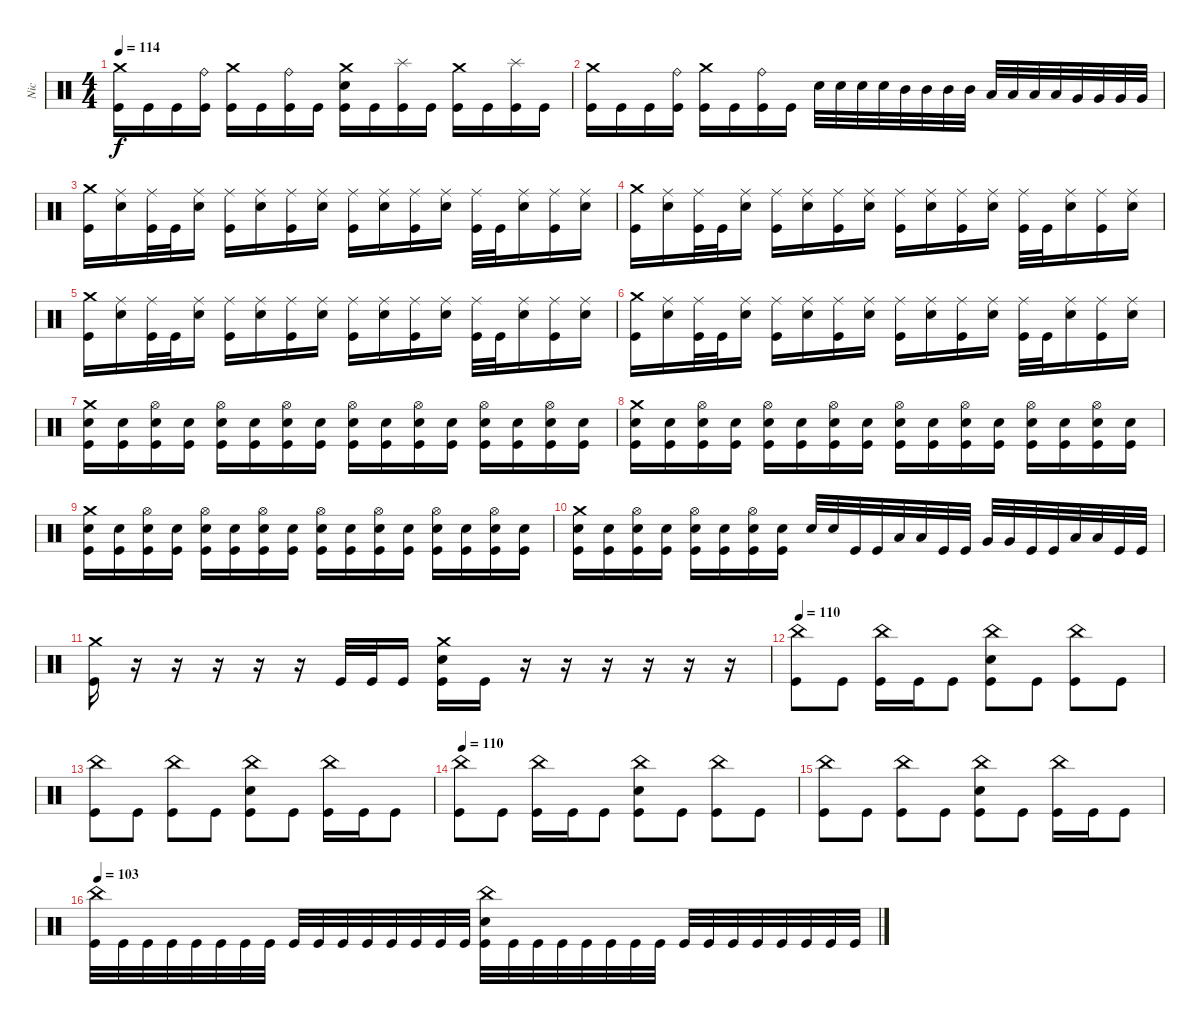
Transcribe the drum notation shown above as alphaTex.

\track ("Nic" "Nic") {instrument percussion}
\staff {score}
\articulation defaults
\ts (4 4)
\tempo 114
\clef neutral
\ks c
("Crash medium (hit)" "Kick (hit)").16{dy f} "Kick (hit)".16 "Kick (hit)".16 ("Ride (bell)" "Kick (hit)").16 ("Crash medium (hit)" "Kick (hit)").16 "Kick (hit)".16 ("Ride (bell)" "Kick (hit)").16 "Kick (hit)".16 ("Crash medium (hit)" "Snare (hit) 2" "Kick (hit)").16 "Kick (hit)".16 ("Splash (hit)" "Kick (hit)").16 "Kick (hit)".16 ("Crash medium (hit)" "Kick (hit)").16 "Kick (hit)".16 ("Splash (hit)" "Kick (hit)").16 "Kick (hit)".16 |
("Crash medium (hit)" "Kick (hit)").16 "Kick (hit)".16 "Kick (hit)".16 ("Ride (bell)" "Kick (hit)").16 ("Crash medium (hit)" "Kick (hit)").16 "Kick (hit)".16 ("Ride (bell)" "Kick (hit)").16 "Kick (hit)".16 "Snare (hit) 2".32 "Snare (hit) 2".32 "Snare (hit) 2".32 "Snare (hit) 2".32 "Mid Tom (hit)".32 "Mid Tom (hit)".32 "Mid Tom (hit)".32 "Mid Tom (hit)".32 "Low Tom (hit)".32 "Low Tom (hit)".32 "Low Tom (hit)".32 "Low Tom (hit)".32 "Very Low Tom (hit)".32 "Very Low Tom (hit)".32 "Very Low Tom (hit)".32 "Very Low Tom (hit)".32 |
("Crash medium (hit)" "Kick (hit)").16 ("Ride (middle)" "Snare (hit) 2").16 ("Ride (middle)" "Kick (hit)").32 "Kick (hit)".32 ("Ride (middle)" "Snare (hit) 2").16 ("Ride (middle)" "Kick (hit)").16 ("Ride (middle)" "Snare (hit) 2").16 ("Ride (middle)" "Kick (hit)").16 ("Ride (middle)" "Snare (hit) 2").16 ("Ride (middle)" "Kick (hit)").16 ("Ride (middle)" "Snare (hit) 2").16 ("Ride (middle)" "Kick (hit)").16 ("Ride (middle)" "Snare (hit) 2").16 ("Ride (middle)" "Kick (hit)").32 "Kick (hit)".32 ("Ride (middle)" "Snare (hit) 2").16 ("Ride (middle)" "Kick (hit)").16 ("Ride (middle)" "Snare (hit) 2").16 |
("Crash medium (hit)" "Kick (hit)").16 ("Ride (middle)" "Snare (hit) 2").16 ("Ride (middle)" "Kick (hit)").32 "Kick (hit)".32 ("Ride (middle)" "Snare (hit) 2").16 ("Ride (middle)" "Kick (hit)").16 ("Ride (middle)" "Snare (hit) 2").16 ("Ride (middle)" "Kick (hit)").16 ("Ride (middle)" "Snare (hit) 2").16 ("Ride (middle)" "Kick (hit)").16 ("Ride (middle)" "Snare (hit) 2").16 ("Ride (middle)" "Kick (hit)").16 ("Ride (middle)" "Snare (hit) 2").16 ("Ride (middle)" "Kick (hit)").32 "Kick (hit)".32 ("Ride (middle)" "Snare (hit) 2").16 ("Ride (middle)" "Kick (hit)").16 ("Ride (middle)" "Snare (hit) 2").16 |
("Crash medium (hit)" "Kick (hit)").16 ("Ride (middle)" "Snare (hit) 2").16 ("Ride (middle)" "Kick (hit)").32 "Kick (hit)".32 ("Ride (middle)" "Snare (hit) 2").16 ("Ride (middle)" "Kick (hit)").16 ("Ride (middle)" "Snare (hit) 2").16 ("Ride (middle)" "Kick (hit)").16 ("Ride (middle)" "Snare (hit) 2").16 ("Ride (middle)" "Kick (hit)").16 ("Ride (middle)" "Snare (hit) 2").16 ("Ride (middle)" "Kick (hit)").16 ("Ride (middle)" "Snare (hit) 2").16 ("Ride (middle)" "Kick (hit)").32 "Kick (hit)".32 ("Ride (middle)" "Snare (hit) 2").16 ("Ride (middle)" "Kick (hit)").16 ("Ride (middle)" "Snare (hit) 2").16 |
("Crash medium (hit)" "Kick (hit)").16 ("Ride (middle)" "Snare (hit) 2").16 ("Ride (middle)" "Kick (hit)").32 "Kick (hit)".32 ("Ride (middle)" "Snare (hit) 2").16 ("Ride (middle)" "Kick (hit)").16 ("Ride (middle)" "Snare (hit) 2").16 ("Ride (middle)" "Kick (hit)").16 ("Ride (middle)" "Snare (hit) 2").16 ("Ride (middle)" "Kick (hit)").16 ("Ride (middle)" "Snare (hit) 2").16 ("Ride (middle)" "Kick (hit)").16 ("Ride (middle)" "Snare (hit) 2").16 ("Ride (middle)" "Kick (hit)").32 "Kick (hit)".32 ("Ride (middle)" "Snare (hit) 2").16 ("Ride (middle)" "Kick (hit)").16 ("Ride (middle)" "Snare (hit) 2").16 |
("Crash medium (hit)" "Snare (hit) 2" "Kick (hit)").16 ("Snare (hit) 2" "Kick (hit)").16 ("Hi-Hat (open)" "Snare (hit) 2" "Kick (hit)").16 ("Snare (hit) 2" "Kick (hit)").16 ("Hi-Hat (open)" "Snare (hit) 2" "Kick (hit)").16 ("Snare (hit) 2" "Kick (hit)").16 ("Hi-Hat (open)" "Snare (hit) 2" "Kick (hit)").16 ("Snare (hit) 2" "Kick (hit)").16 ("Hi-Hat (open)" "Snare (hit) 2" "Kick (hit)").16 ("Snare (hit) 2" "Kick (hit)").16 ("Hi-Hat (open)" "Snare (hit) 2" "Kick (hit)").16 ("Snare (hit) 2" "Kick (hit)").16 ("Hi-Hat (open)" "Snare (hit) 2" "Kick (hit)").16 ("Snare (hit) 2" "Kick (hit)").16 ("Hi-Hat (open)" "Snare (hit) 2" "Kick (hit)").16 ("Snare (hit) 2" "Kick (hit)").16 |
("Crash medium (hit)" "Snare (hit) 2" "Kick (hit)").16 ("Snare (hit) 2" "Kick (hit)").16 ("Hi-Hat (open)" "Snare (hit) 2" "Kick (hit)").16 ("Snare (hit) 2" "Kick (hit)").16 ("Hi-Hat (open)" "Snare (hit) 2" "Kick (hit)").16 ("Snare (hit) 2" "Kick (hit)").16 ("Hi-Hat (open)" "Snare (hit) 2" "Kick (hit)").16 ("Snare (hit) 2" "Kick (hit)").16 ("Hi-Hat (open)" "Snare (hit) 2" "Kick (hit)").16 ("Snare (hit) 2" "Kick (hit)").16 ("Hi-Hat (open)" "Snare (hit) 2" "Kick (hit)").16 ("Snare (hit) 2" "Kick (hit)").16 ("Hi-Hat (open)" "Snare (hit) 2" "Kick (hit)").16 ("Snare (hit) 2" "Kick (hit)").16 ("Hi-Hat (open)" "Snare (hit) 2" "Kick (hit)").16 ("Snare (hit) 2" "Kick (hit)").16 |
("Crash medium (hit)" "Snare (hit) 2" "Kick (hit)").16 ("Snare (hit) 2" "Kick (hit)").16 ("Hi-Hat (open)" "Snare (hit) 2" "Kick (hit)").16 ("Snare (hit) 2" "Kick (hit)").16 ("Hi-Hat (open)" "Snare (hit) 2" "Kick (hit)").16 ("Snare (hit) 2" "Kick (hit)").16 ("Hi-Hat (open)" "Snare (hit) 2" "Kick (hit)").16 ("Snare (hit) 2" "Kick (hit)").16 ("Hi-Hat (open)" "Snare (hit) 2" "Kick (hit)").16 ("Snare (hit) 2" "Kick (hit)").16 ("Hi-Hat (open)" "Snare (hit) 2" "Kick (hit)").16 ("Snare (hit) 2" "Kick (hit)").16 ("Hi-Hat (open)" "Snare (hit) 2" "Kick (hit)").16 ("Snare (hit) 2" "Kick (hit)").16 ("Hi-Hat (open)" "Snare (hit) 2" "Kick (hit)").16 ("Snare (hit) 2" "Kick (hit)").16 |
("Crash medium (hit)" "Snare (hit) 2" "Kick (hit)").16 ("Snare (hit) 2" "Kick (hit)").16 ("Hi-Hat (open)" "Snare (hit) 2" "Kick (hit)").16 ("Snare (hit) 2" "Kick (hit)").16 ("Hi-Hat (open)" "Snare (hit) 2" "Kick (hit)").16 ("Snare (hit) 2" "Kick (hit)").16 ("Hi-Hat (open)" "Snare (hit) 2" "Kick (hit)").16 ("Snare (hit) 2" "Kick (hit)").16 "Snare (hit) 2".32 "Snare (hit) 2".32 "Kick (hit)".32 "Kick (hit)".32 "Low Tom (hit)".32 "Low Tom (hit)".32 "Kick (hit)".32 "Kick (hit)".32 "Very Low Tom (hit)".32 "Very Low Tom (hit)".32 "Kick (hit)".32 "Kick (hit)".32 "Low Floor Tom (hit)".32 "Low Floor Tom (hit)".32 "Kick (hit)".32 "Kick (hit)".32 |
("Crash medium (hit)" "Kick (hit)").16 r.16 r.16 r.16 r.16 r.16 "Kick (hit)".32 "Kick (hit)".32 "Kick (hit)".16 ("Crash medium (hit)" "Snare (hit) 2" "Kick (hit)").16 "Kick (hit)".16 r.16 r.16 r.16 r.16 r.16 r.16 |
\tempo 110
("China (hit)" "Kick (hit)").8 "Kick (hit)".8 ("China (hit)" "Kick (hit)").16 "Kick (hit)".16 "Kick (hit)".8 ("China (hit)" "Snare (hit) 2" "Kick (hit)").8 "Kick (hit)".8 ("China (hit)" "Kick (hit)").8 "Kick (hit)".8 |
("China (hit)" "Kick (hit)").8 "Kick (hit)".8 ("China (hit)" "Kick (hit)").8 "Kick (hit)".8 ("China (hit)" "Snare (hit) 2" "Kick (hit)").8 "Kick (hit)".8 ("China (hit)" "Kick (hit)").16 "Kick (hit)".16 "Kick (hit)".8 |
\tempo 110
("China (hit)" "Kick (hit)").8 "Kick (hit)".8 ("China (hit)" "Kick (hit)").16 "Kick (hit)".16 "Kick (hit)".8 ("China (hit)" "Snare (hit) 2" "Kick (hit)").8 "Kick (hit)".8 ("China (hit)" "Kick (hit)").8 "Kick (hit)".8 |
("China (hit)" "Kick (hit)").8 "Kick (hit)".8 ("China (hit)" "Kick (hit)").8 "Kick (hit)".8 ("China (hit)" "Snare (hit) 2" "Kick (hit)").8 "Kick (hit)".8 ("China (hit)" "Kick (hit)").16 "Kick (hit)".16 "Kick (hit)".8 |
\tempo 103
("China (hit)" "Kick (hit)").32 "Kick (hit)".32 "Kick (hit)".32 "Kick (hit)".32 "Kick (hit)".32 "Kick (hit)".32 "Kick (hit)".32 "Kick (hit)".32 "Kick (hit)".32 "Kick (hit)".32 "Kick (hit)".32 "Kick (hit)".32 "Kick (hit)".32 "Kick (hit)".32 "Kick (hit)".32 "Kick (hit)".32 ("China (hit)" "Snare (hit) 2" "Kick (hit)").32 "Kick (hit)".32 "Kick (hit)".32 "Kick (hit)".32 "Kick (hit)".32 "Kick (hit)".32 "Kick (hit)".32 "Kick (hit)".32 "Kick (hit)".32 "Kick (hit)".32 "Kick (hit)".32 "Kick (hit)".32 "Kick (hit)".32 "Kick (hit)".32 "Kick (hit)".32 "Kick (hit)".32
